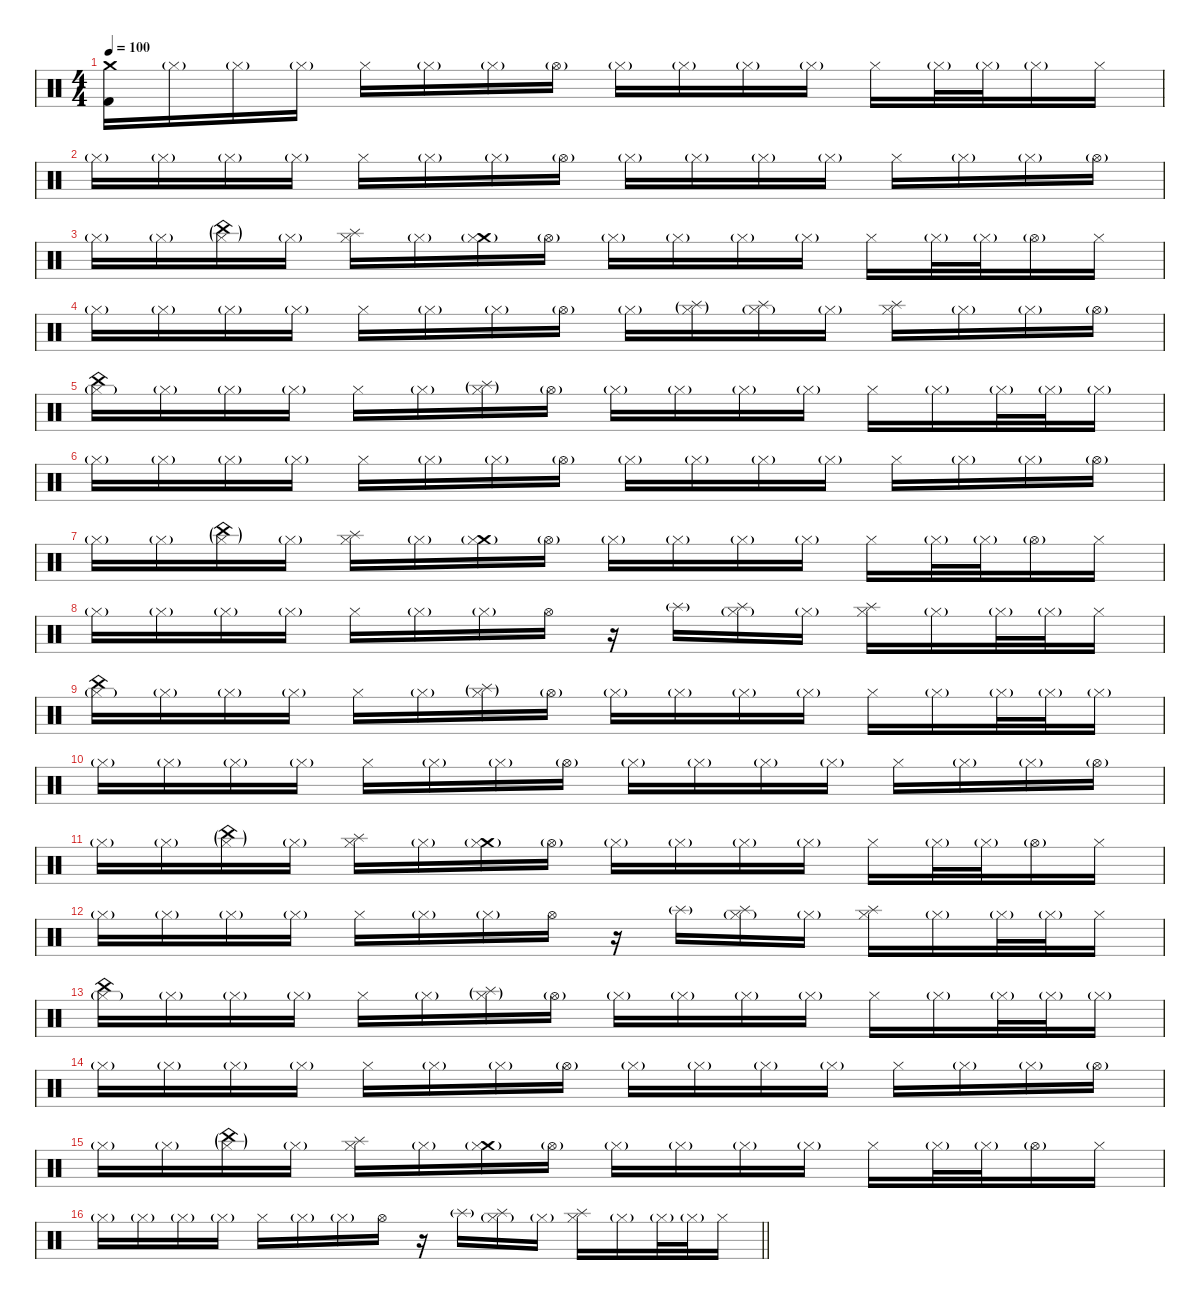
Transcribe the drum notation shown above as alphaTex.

\defaultSystemsLayout 4
\hideDynamics
\bracketExtendMode nobrackets
\singleTrackTrackNamePolicy hidden
\multiTrackTrackNamePolicy hidden
\firstSystemTrackNameMode fullname
\firstSystemTrackNameOrientation horizontal
\otherSystemsTrackNameOrientation horizontal
\track ("Drums" "drm.") {instrument percussion}
\staff {score}
\articulation defaults
\ts (4 4)
\beaming (8 2 2 2 2)
\tempo 100
\clef neutral
\ks c
("Crash medium (hit)" "Kick (hit) 2").16{dy f beam Down} "Hi-Hat (closed)"{g}.16{dy mf beam Down} "Hi-Hat (closed)"{g}.16{beam Down} "Hi-Hat (closed)"{g}.16{beam Down} "Hi-Hat (closed)".16{dy f beam Down} "Hi-Hat (closed)"{g}.16{dy mf beam Down} "Hi-Hat (closed)"{g}.16{beam Down} "Hi-Hat (open)"{g}.16{beam Down} "Hi-Hat (closed)"{g}.16{beam Down} "Hi-Hat (closed)"{g}.16{beam Down} "Hi-Hat (closed)"{g}.16{beam Down} "Hi-Hat (closed)"{g}.16{beam Down} "Hi-Hat (closed)".16{dy f beam Down} "Hi-Hat (closed)"{g}.32{dy mf beam Down} "Hi-Hat (closed)"{g}.32{beam Down} "Hi-Hat (closed)"{g}.16{beam Down} "Hi-Hat (closed)".16{dy f beam Down} |
"Hi-Hat (closed)"{g}.16{dy mf beam Down} "Hi-Hat (closed)"{g}.16{beam Down} "Hi-Hat (closed)"{g}.16{beam Down} "Hi-Hat (closed)"{g}.16{beam Down} "Hi-Hat (closed)".16{dy f beam Down} "Hi-Hat (closed)"{g}.16{dy mf beam Down} "Hi-Hat (closed)"{g}.16{beam Down} "Hi-Hat (open)"{g}.16{beam Down} "Hi-Hat (closed)"{g}.16{beam Down} "Hi-Hat (closed)"{g}.16{beam Down} "Hi-Hat (closed)"{g}.16{beam Down} "Hi-Hat (closed)"{g}.16{beam Down} "Hi-Hat (closed)".16{dy f beam Down} "Hi-Hat (closed)"{g}.16{dy mf beam Down} "Hi-Hat (closed)"{g}.16{beam Down} "Hi-Hat (open)"{g}.16{beam Down} |
"Hi-Hat (closed)"{g}.16{beam Down} "Hi-Hat (closed)"{g}.16{beam Down} ("China (hit)"{g} "Hi-Hat (closed)"{g}).16{beam Down} "Hi-Hat (closed)"{g}.16{beam Down} ("Splash (hit)" "Hi-Hat (closed)").16{dy f beam Down} "Hi-Hat (closed)"{g}.16{dy mf beam Down} ("Crash medium (hit)"{g} "Hi-Hat (closed)"{g}).16{beam Down} "Hi-Hat (open)"{g}.16{beam Down} "Hi-Hat (closed)"{g}.16{beam Down} "Hi-Hat (closed)"{g}.16{beam Down} "Hi-Hat (closed)"{g}.16{beam Down} "Hi-Hat (closed)"{g}.16{beam Down} "Hi-Hat (closed)".16{dy f beam Down} "Hi-Hat (closed)"{g}.32{dy mf beam Down} "Hi-Hat (closed)"{g}.32{beam Down} "Hi-Hat (open)"{g}.16{beam Down} "Hi-Hat (closed)".16{dy f beam Down} |
"Hi-Hat (closed)"{g}.16{dy mf beam Down} "Hi-Hat (closed)"{g}.16{beam Down} "Hi-Hat (closed)"{g}.16{beam Down} "Hi-Hat (closed)"{g}.16{beam Down} "Hi-Hat (closed)".16{dy f beam Down} "Hi-Hat (closed)"{g}.16{dy mf beam Down} "Hi-Hat (closed)"{g}.16{beam Down} "Hi-Hat (open)"{g}.16{beam Down} "Hi-Hat (closed)"{g}.16{beam Down} ("Splash (hit)"{g} "Hi-Hat (closed)"{g}).16{beam Down} ("Splash (hit)" "Hi-Hat (closed)"{g}).16{dy f beam Down} "Hi-Hat (closed)"{g}.16{dy mf beam Down} ("Splash (hit)" "Hi-Hat (closed)").16{dy f beam Down} "Hi-Hat (closed)"{g}.16{dy mf beam Down} "Hi-Hat (closed)"{g}.16{beam Down} "Hi-Hat (open)"{g}.16{beam Down} |
("China (hit)" "Hi-Hat (closed)"{g}).16{dy f beam Down} "Hi-Hat (closed)"{g}.16{dy mf beam Down} "Hi-Hat (closed)"{g}.16{beam Down} "Hi-Hat (closed)"{g}.16{beam Down} "Hi-Hat (closed)".16{dy f beam Down} "Hi-Hat (closed)"{g}.16{dy mf beam Down} ("Splash (hit)"{g} "Hi-Hat (closed)"{g}).16{beam Down} "Hi-Hat (open)"{g}.16{beam Down} "Hi-Hat (closed)"{g}.16{beam Down} "Hi-Hat (closed)"{g}.16{beam Down} "Hi-Hat (closed)"{g}.16{beam Down} "Hi-Hat (closed)"{g}.16{beam Down} "Hi-Hat (closed)".16{dy f beam Down} "Hi-Hat (closed)"{g}.16{dy mf beam Down} "Hi-Hat (closed)"{g}.32{beam Down} "Hi-Hat (closed)"{g}.32{beam Down} "Hi-Hat (closed)"{g}.16{beam Down} |
"Hi-Hat (closed)"{g}.16{beam Down} "Hi-Hat (closed)"{g}.16{beam Down} "Hi-Hat (closed)"{g}.16{beam Down} "Hi-Hat (closed)"{g}.16{beam Down} "Hi-Hat (closed)".16{dy f beam Down} "Hi-Hat (closed)"{g}.16{dy mf beam Down} "Hi-Hat (closed)"{g}.16{beam Down} "Hi-Hat (open)"{g}.16{beam Down} "Hi-Hat (closed)"{g}.16{beam Down} "Hi-Hat (closed)"{g}.16{beam Down} "Hi-Hat (closed)"{g}.16{beam Down} "Hi-Hat (closed)"{g}.16{beam Down} "Hi-Hat (closed)".16{dy f beam Down} "Hi-Hat (closed)"{g}.16{dy mf beam Down} "Hi-Hat (closed)"{g}.16{beam Down} "Hi-Hat (open)"{g}.16{beam Down} |
"Hi-Hat (closed)"{g}.16{beam Down} "Hi-Hat (closed)"{g}.16{beam Down} ("China (hit)"{g} "Hi-Hat (closed)"{g}).16{beam Down} "Hi-Hat (closed)"{g}.16{beam Down} ("Splash (hit)" "Hi-Hat (closed)").16{dy f beam Down} "Hi-Hat (closed)"{g}.16{dy mf beam Down} ("Crash medium (hit)"{g} "Hi-Hat (closed)"{g}).16{beam Down} "Hi-Hat (open)"{g}.16{beam Down} "Hi-Hat (closed)"{g}.16{beam Down} "Hi-Hat (closed)"{g}.16{beam Down} "Hi-Hat (closed)"{g}.16{beam Down} "Hi-Hat (closed)"{g}.16{beam Down} "Hi-Hat (closed)".16{dy f beam Down} "Hi-Hat (closed)"{g}.32{dy mf beam Down} "Hi-Hat (closed)"{g}.32{beam Down} "Hi-Hat (open)"{g}.16{beam Down} "Hi-Hat (closed)".16{dy f beam Down} |
"Hi-Hat (closed)"{g}.16{dy mf beam Down} "Hi-Hat (closed)"{g}.16{beam Down} "Hi-Hat (closed)"{g}.16{beam Down} "Hi-Hat (closed)"{g}.16{beam Down} "Hi-Hat (closed)".16{dy f beam Down} "Hi-Hat (closed)"{g}.16{dy mf beam Down} "Hi-Hat (closed)"{g}.16{beam Down} "Hi-Hat (open)".16{dy f beam Down} r.16{beam Down} "Splash (hit)"{g}.16{dy mf beam Down} ("Splash (hit)" "Hi-Hat (closed)"{g}).16{dy f beam Down} "Hi-Hat (closed)"{g}.16{dy mf beam Down} ("Splash (hit)" "Hi-Hat (closed)").16{dy f beam Down} "Hi-Hat (closed)"{g}.16{dy mf beam Down} "Hi-Hat (closed)"{g}.32{beam Down} "Hi-Hat (closed)"{g}.32{beam Down} "Hi-Hat (closed)".16{dy f beam Down} |
("China (hit)" "Hi-Hat (closed)"{g}).16{beam Down} "Hi-Hat (closed)"{g}.16{dy mf beam Down} "Hi-Hat (closed)"{g}.16{beam Down} "Hi-Hat (closed)"{g}.16{beam Down} "Hi-Hat (closed)".16{dy f beam Down} "Hi-Hat (closed)"{g}.16{dy mf beam Down} ("Splash (hit)"{g} "Hi-Hat (closed)"{g}).16{beam Down} "Hi-Hat (open)"{g}.16{beam Down} "Hi-Hat (closed)"{g}.16{beam Down} "Hi-Hat (closed)"{g}.16{beam Down} "Hi-Hat (closed)"{g}.16{beam Down} "Hi-Hat (closed)"{g}.16{beam Down} "Hi-Hat (closed)".16{dy f beam Down} "Hi-Hat (closed)"{g}.16{dy mf beam Down} "Hi-Hat (closed)"{g}.32{beam Down} "Hi-Hat (closed)"{g}.32{beam Down} "Hi-Hat (closed)"{g}.16{beam Down} |
"Hi-Hat (closed)"{g}.16{beam Down} "Hi-Hat (closed)"{g}.16{beam Down} "Hi-Hat (closed)"{g}.16{beam Down} "Hi-Hat (closed)"{g}.16{beam Down} "Hi-Hat (closed)".16{dy f beam Down} "Hi-Hat (closed)"{g}.16{dy mf beam Down} "Hi-Hat (closed)"{g}.16{beam Down} "Hi-Hat (open)"{g}.16{beam Down} "Hi-Hat (closed)"{g}.16{beam Down} "Hi-Hat (closed)"{g}.16{beam Down} "Hi-Hat (closed)"{g}.16{beam Down} "Hi-Hat (closed)"{g}.16{beam Down} "Hi-Hat (closed)".16{dy f beam Down} "Hi-Hat (closed)"{g}.16{dy mf beam Down} "Hi-Hat (closed)"{g}.16{beam Down} "Hi-Hat (open)"{g}.16{beam Down} |
"Hi-Hat (closed)"{g}.16{beam Down} "Hi-Hat (closed)"{g}.16{beam Down} ("China (hit)"{g} "Hi-Hat (closed)"{g}).16{beam Down} "Hi-Hat (closed)"{g}.16{beam Down} ("Splash (hit)" "Hi-Hat (closed)").16{dy f beam Down} "Hi-Hat (closed)"{g}.16{dy mf beam Down} ("Crash medium (hit)"{g} "Hi-Hat (closed)"{g}).16{beam Down} "Hi-Hat (open)"{g}.16{beam Down} "Hi-Hat (closed)"{g}.16{beam Down} "Hi-Hat (closed)"{g}.16{beam Down} "Hi-Hat (closed)"{g}.16{beam Down} "Hi-Hat (closed)"{g}.16{beam Down} "Hi-Hat (closed)".16{dy f beam Down} "Hi-Hat (closed)"{g}.32{dy mf beam Down} "Hi-Hat (closed)"{g}.32{beam Down} "Hi-Hat (open)"{g}.16{beam Down} "Hi-Hat (closed)".16{dy f beam Down} |
"Hi-Hat (closed)"{g}.16{dy mf beam Down} "Hi-Hat (closed)"{g}.16{beam Down} "Hi-Hat (closed)"{g}.16{beam Down} "Hi-Hat (closed)"{g}.16{beam Down} "Hi-Hat (closed)".16{dy f beam Down} "Hi-Hat (closed)"{g}.16{dy mf beam Down} "Hi-Hat (closed)"{g}.16{beam Down} "Hi-Hat (open)".16{dy f beam Down} r.16{beam Down} "Splash (hit)"{g}.16{dy mf beam Down} ("Splash (hit)" "Hi-Hat (closed)"{g}).16{dy f beam Down} "Hi-Hat (closed)"{g}.16{dy mf beam Down} ("Splash (hit)" "Hi-Hat (closed)").16{dy f beam Down} "Hi-Hat (closed)"{g}.16{dy mf beam Down} "Hi-Hat (closed)"{g}.32{beam Down} "Hi-Hat (closed)"{g}.32{beam Down} "Hi-Hat (closed)".16{dy f beam Down} |
("China (hit)" "Hi-Hat (closed)"{g}).16{beam Down} "Hi-Hat (closed)"{g}.16{dy mf beam Down} "Hi-Hat (closed)"{g}.16{beam Down} "Hi-Hat (closed)"{g}.16{beam Down} "Hi-Hat (closed)".16{dy f beam Down} "Hi-Hat (closed)"{g}.16{dy mf beam Down} ("Splash (hit)"{g} "Hi-Hat (closed)"{g}).16{beam Down} "Hi-Hat (open)"{g}.16{beam Down} "Hi-Hat (closed)"{g}.16{beam Down} "Hi-Hat (closed)"{g}.16{beam Down} "Hi-Hat (closed)"{g}.16{beam Down} "Hi-Hat (closed)"{g}.16{beam Down} "Hi-Hat (closed)".16{dy f beam Down} "Hi-Hat (closed)"{g}.16{dy mf beam Down} "Hi-Hat (closed)"{g}.32{beam Down} "Hi-Hat (closed)"{g}.32{beam Down} "Hi-Hat (closed)"{g}.16{beam Down} |
"Hi-Hat (closed)"{g}.16{beam Down} "Hi-Hat (closed)"{g}.16{beam Down} "Hi-Hat (closed)"{g}.16{beam Down} "Hi-Hat (closed)"{g}.16{beam Down} "Hi-Hat (closed)".16{dy f beam Down} "Hi-Hat (closed)"{g}.16{dy mf beam Down} "Hi-Hat (closed)"{g}.16{beam Down} "Hi-Hat (open)"{g}.16{beam Down} "Hi-Hat (closed)"{g}.16{beam Down} "Hi-Hat (closed)"{g}.16{beam Down} "Hi-Hat (closed)"{g}.16{beam Down} "Hi-Hat (closed)"{g}.16{beam Down} "Hi-Hat (closed)".16{dy f beam Down} "Hi-Hat (closed)"{g}.16{dy mf beam Down} "Hi-Hat (closed)"{g}.16{beam Down} "Hi-Hat (open)"{g}.16{beam Down} |
"Hi-Hat (closed)"{g}.16{beam Down} "Hi-Hat (closed)"{g}.16{beam Down} ("China (hit)"{g} "Hi-Hat (closed)"{g}).16{beam Down} "Hi-Hat (closed)"{g}.16{beam Down} ("Splash (hit)" "Hi-Hat (closed)").16{dy f beam Down} "Hi-Hat (closed)"{g}.16{dy mf beam Down} ("Crash medium (hit)"{g} "Hi-Hat (closed)"{g}).16{beam Down} "Hi-Hat (open)"{g}.16{beam Down} "Hi-Hat (closed)"{g}.16{beam Down} "Hi-Hat (closed)"{g}.16{beam Down} "Hi-Hat (closed)"{g}.16{beam Down} "Hi-Hat (closed)"{g}.16{beam Down} "Hi-Hat (closed)".16{dy f beam Down} "Hi-Hat (closed)"{g}.32{dy mf beam Down} "Hi-Hat (closed)"{g}.32{beam Down} "Hi-Hat (open)"{g}.16{beam Down} "Hi-Hat (closed)".16{dy f beam Down} |
\barLineRight lightlight "Hi-Hat (closed)"{g}.16{dy mf beam Down} "Hi-Hat (closed)"{g}.16{beam Down} "Hi-Hat (closed)"{g}.16{beam Down} "Hi-Hat (closed)"{g}.16{beam Down} "Hi-Hat (closed)".16{dy f beam Down} "Hi-Hat (closed)"{g}.16{dy mf beam Down} "Hi-Hat (closed)"{g}.16{beam Down} "Hi-Hat (open)".16{dy f beam Down}
r.16{beam Down} "Splash (hit)"{g}.16{dy mf beam Down} ("Splash (hit)" "Hi-Hat (closed)"{g}).16{dy f beam Down} "Hi-Hat (closed)"{g}.16{dy mf beam Down} ("Splash (hit)" "Hi-Hat (closed)").16{dy f beam Down} "Hi-Hat (closed)"{g}.16{dy mf beam Down} "Hi-Hat (closed)"{g}.32{beam Down} "Hi-Hat (closed)"{g}.32{beam Down} "Hi-Hat (closed)".16{dy f beam Down}
